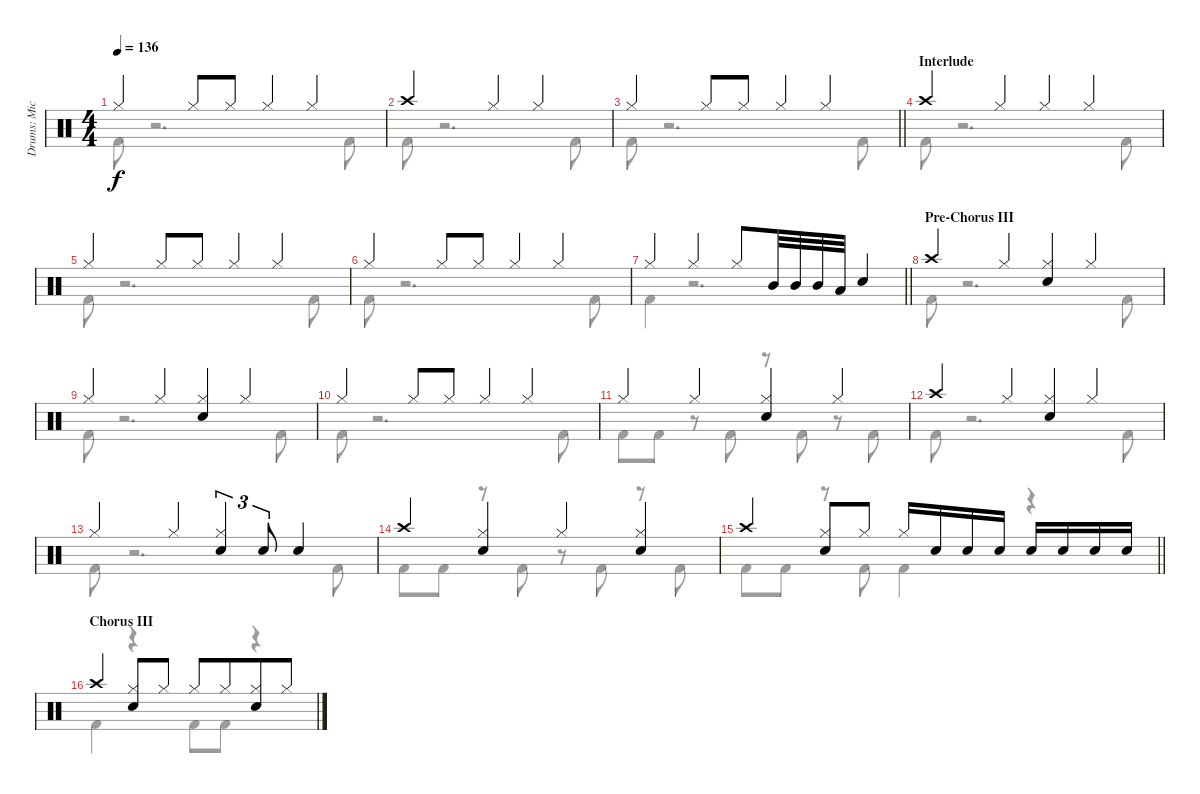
\track ("Drums: Mick" "Drums: Mic") {instrument percussion}
\staff {score}
\articulation defaults
\voice
\ts (4 4)
\tempo 136
\clef neutral
\ks c "Hi-Hat (closed)".4{dy f} "Hi-Hat (closed)".8 "Hi-Hat (closed)".8 "Hi-Hat (closed)".4 "Hi-Hat (closed)".4
|
"Crash high (hit)".2 "Hi-Hat (closed)".4 "Hi-Hat (closed)".4 |
\barLineRight lightlight "Hi-Hat (closed)".4 "Hi-Hat (closed)".8 "Hi-Hat (closed)".8 "Hi-Hat (closed)".4 "Hi-Hat (closed)".4
|
\section ("" "Interlude")
"Crash high (hit)".4 "Hi-Hat (closed)".4 "Hi-Hat (closed)".4 "Hi-Hat (closed)".4 |
"Hi-Hat (closed)".4 "Hi-Hat (closed)".8 "Hi-Hat (closed)".8 "Hi-Hat (closed)".4 "Hi-Hat (closed)".4 |
"Hi-Hat (closed)".4 "Hi-Hat (closed)".8 "Hi-Hat (closed)".8 "Hi-Hat (closed)".4 "Hi-Hat (closed)".4 |
\barLineRight lightlight "Hi-Hat (closed)".4 "Hi-Hat (closed)".4 "Hi-Hat (closed)".8 "Mid Tom (hit)".32 "Mid Tom (hit)".32 "Mid Tom (hit)".32 "Low Tom (hit)".32 "Snare (hit) 2".4
|
\section ("" "Pre-Chorus III")
"Crash high (hit)".4 "Hi-Hat (closed)".4 ("Hi-Hat (closed)" "Snare (hit) 2").4 "Hi-Hat (closed)".4 |
"Hi-Hat (closed)".4 "Hi-Hat (closed)".4 ("Hi-Hat (closed)" "Snare (hit) 2").4 "Hi-Hat (closed)".4 |
"Hi-Hat (closed)".4 "Hi-Hat (closed)".8 "Hi-Hat (closed)".8 "Hi-Hat (closed)".4 "Hi-Hat (closed)".4 |
"Hi-Hat (closed)".4 "Hi-Hat (closed)".4 ("Hi-Hat (closed)" "Snare (hit) 2").4 "Hi-Hat (closed)".4 |
"Crash high (hit)".4 "Hi-Hat (closed)".4 ("Hi-Hat (closed)" "Snare (hit) 2").4 "Hi-Hat (closed)".4 |
"Hi-Hat (closed)".4 "Hi-Hat (closed)".4 ("Hi-Hat (closed)" "Snare (hit) 2").4{tu (3 2)} "Snare (hit) 2".8{tu (3 2)} "Snare (hit) 2".4 |
"Crash high (hit)".4 ("Hi-Hat (closed)" "Snare (hit) 2").4 "Hi-Hat (closed)".4 ("Hi-Hat (closed)" "Snare (hit) 2").4 |
\barLineRight lightlight "Crash high (hit)".4
("Hi-Hat (closed)" "Snare (hit) 2").8 "Hi-Hat (closed)".8 "Hi-Hat (closed)".16 "Snare (hit) 2".16 "Snare (hit) 2".16 "Snare (hit) 2".16 "Snare (hit) 2".16 "Snare (hit) 2".16 "Snare (hit) 2".16 "Snare (hit) 2".16 |
\section ("" "Chorus III")
"Crash high (hit)".4 ("Hi-Hat (closed)" "Snare (hit) 2").8 "Hi-Hat (closed)".8 "Hi-Hat (closed)".8 "Hi-Hat (closed)".8{beam merge} ("Hi-Hat (closed)" "Snare (hit) 2").8 "Hi-Hat (closed)".8
\voice
\clef neutral
\ottava regular
\simile none
\ks c "Kick (hit) 2".8{dy f}
r.2{d} "Kick (hit) 2".8 |
"Kick (hit) 2".8 r.2{d} "Kick (hit) 2".8 |
\barLineRight lightlight "Kick (hit) 2".8
r.2{d} "Kick (hit) 2".8 |
"Kick (hit) 2".8 r.2{d} "Kick (hit) 2".8 |
"Kick (hit) 2".8 r.2{d} "Kick (hit) 2".8 |
"Kick (hit) 2".8 r.2{d} "Kick (hit) 2".8 |
\barLineRight lightlight "Kick (hit) 2".4
r.2{d} |
"Kick (hit) 2".8 r.2{d} "Kick (hit) 2".8 |
"Kick (hit) 2".8 r.2{d} "Kick (hit) 2".8 |
"Kick (hit) 2".8 r.2{d} "Kick (hit) 2".8 |
"Kick (hit) 2".8 "Kick (hit) 2".8 r.8 "Kick (hit) 2".8 r.8 "Kick (hit) 2".8 r.8 "Kick (hit) 2".8 |
"Kick (hit) 2".8 r.2{d} "Kick (hit) 2".8 |
"Kick (hit) 2".8 r.2{d} "Kick (hit) 2".8 |
"Kick (hit) 2".8 "Kick (hit) 2".8 r.8 "Kick (hit) 2".8 r.8 "Kick (hit) 2".8 r.8 "Kick (hit) 2".8 |
\barLineRight lightlight "Kick (hit) 2".8 "Kick (hit) 2".8
r.8 "Kick (hit) 2".8 "Kick (hit) 2".4 r.4 |
"Kick (hit) 2".4 r.4 "Kick (hit) 2".8 "Kick (hit) 2".8 r.4
